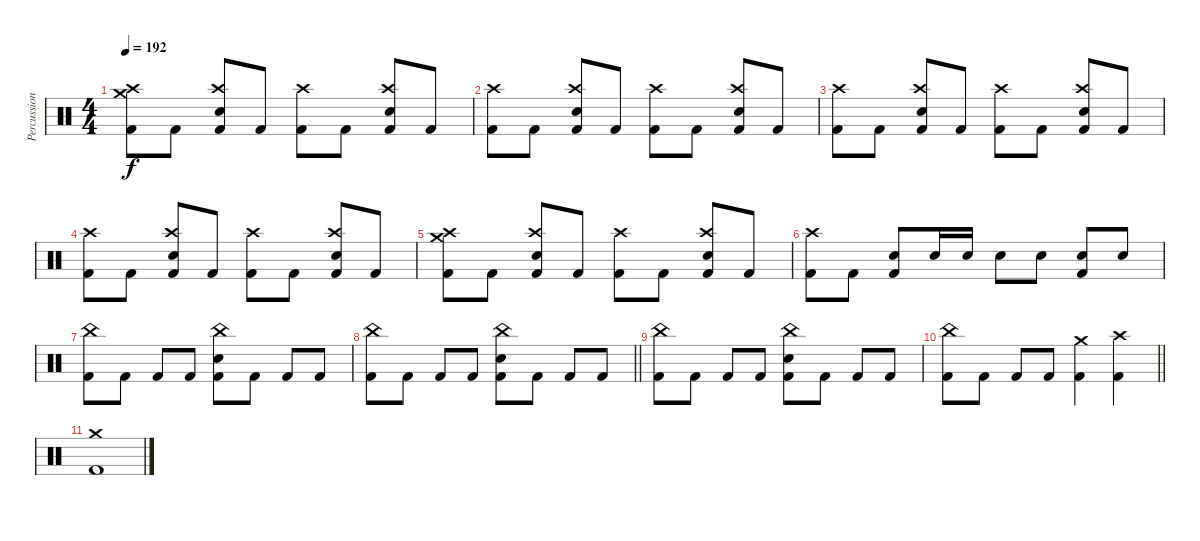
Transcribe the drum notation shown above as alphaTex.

\track ("Percussion" "Percussion") {instrument percussion}
\staff {score}
\articulation defaults
\ts (4 4)
\tempo 192
\clef neutral
\ks aminor
("Kick (hit) 2" "Crash medium (hit)" "Crash high (hit)").8{dy f} "Kick (hit) 2".8 ("Kick (hit) 2" "Snare (hit) 2" "Crash high (hit)").8 "Kick (hit) 2".8 ("Kick (hit) 2" "Crash high (hit)").8 "Kick (hit) 2".8 ("Kick (hit) 2" "Snare (hit) 2" "Crash high (hit)").8 "Kick (hit) 2".8 |
("Kick (hit) 2" "Crash high (hit)").8 "Kick (hit) 2".8 ("Kick (hit) 2" "Snare (hit) 2" "Crash high (hit)").8 "Kick (hit) 2".8 ("Kick (hit) 2" "Crash high (hit)").8 "Kick (hit) 2".8 ("Kick (hit) 2" "Snare (hit) 2" "Crash high (hit)").8 "Kick (hit) 2".8 |
("Kick (hit) 2" "Crash high (hit)").8 "Kick (hit) 2".8 ("Kick (hit) 2" "Snare (hit) 2" "Crash high (hit)").8 "Kick (hit) 2".8 ("Kick (hit) 2" "Crash high (hit)").8 "Kick (hit) 2".8 ("Kick (hit) 2" "Snare (hit) 2" "Crash high (hit)").8 "Kick (hit) 2".8 |
("Kick (hit) 2" "Crash high (hit)").8 "Kick (hit) 2".8 ("Kick (hit) 2" "Snare (hit) 2" "Crash high (hit)").8 "Kick (hit) 2".8 ("Kick (hit) 2" "Crash high (hit)").8 "Kick (hit) 2".8 ("Kick (hit) 2" "Snare (hit) 2" "Crash high (hit)").8 "Kick (hit) 2".8 |
("Kick (hit) 2" "Crash medium (hit)" "Crash high (hit)").8 "Kick (hit) 2".8 ("Kick (hit) 2" "Snare (hit) 2" "Crash high (hit)").8 "Kick (hit) 2".8 ("Kick (hit) 2" "Crash high (hit)").8 "Kick (hit) 2".8 ("Kick (hit) 2" "Snare (hit) 2" "Crash high (hit)").8 "Kick (hit) 2".8 |
("Kick (hit) 2" "Crash high (hit)").8 "Kick (hit) 2".8 ("Kick (hit) 2" "Snare (hit) 2").8 "Snare (hit) 2".16 "Snare (hit) 2".16 "Snare (hit) 2".8 "Snare (hit) 2".8 ("Kick (hit) 2" "Snare (hit) 2").8 "Snare (hit) 2".8 |
("Kick (hit) 2" "China (hit)").8 "Kick (hit) 2".8 "Kick (hit) 2".8 "Kick (hit) 2".8 ("Kick (hit) 2" "Snare (hit) 2" "China (hit)").8 "Kick (hit) 2".8 "Kick (hit) 2".8 "Kick (hit) 2".8 |
\barLineRight lightlight
("Kick (hit) 2" "China (hit)").8 "Kick (hit) 2".8 "Kick (hit) 2".8 "Kick (hit) 2".8 ("Kick (hit) 2" "Snare (hit) 2" "China (hit)").8 "Kick (hit) 2".8 "Kick (hit) 2".8 "Kick (hit) 2".8 |
("Kick (hit) 2" "China (hit)").8 "Kick (hit) 2".8 "Kick (hit) 2".8 "Kick (hit) 2".8 ("Kick (hit) 2" "Snare (hit) 2" "China (hit)").8 "Kick (hit) 2".8 "Kick (hit) 2".8 "Kick (hit) 2".8 |
\barLineRight lightlight
("Kick (hit) 2" "China (hit)").8 "Kick (hit) 2".8 "Kick (hit) 2".8 "Kick (hit) 2".8 ("Kick (hit) 2" "Crash medium (hit)").4 ("Kick (hit) 2" "Crash high (hit)").4 |
("Kick (hit) 2" "Crash medium (hit)").1
